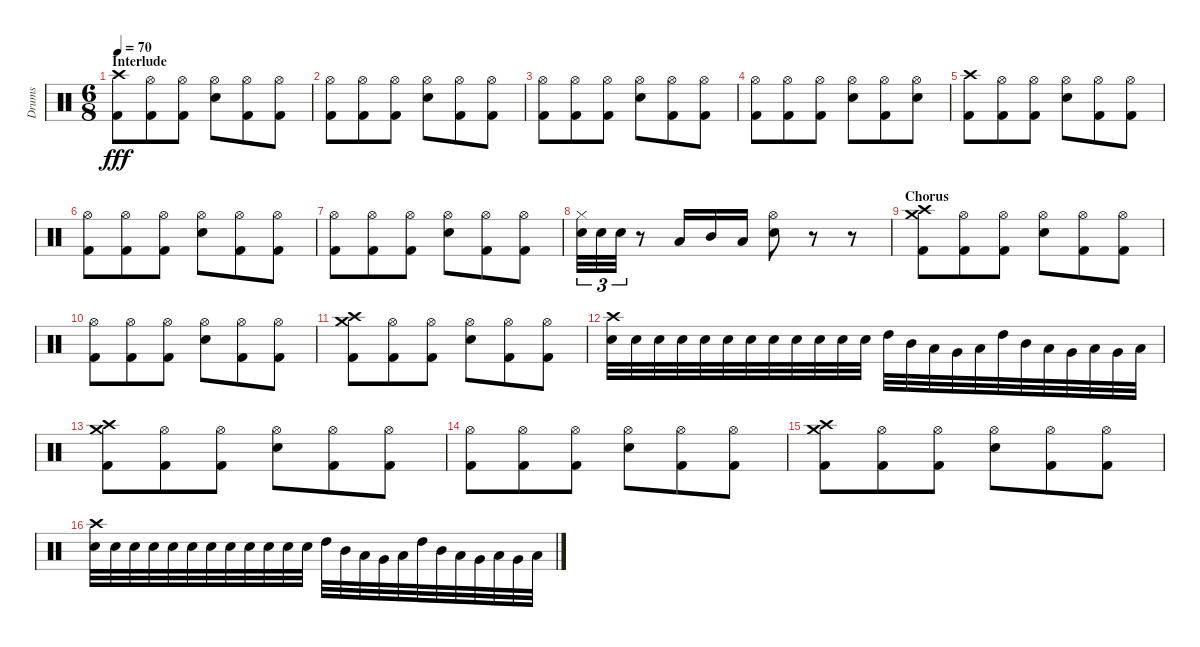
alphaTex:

\track ("Drums" "Drums") {instrument percussion}
\staff {score}
\articulation defaults
\ts (6 8)
\section ("" "Interlude")
\tempo 70
\clef neutral
\ks c
("Crash high (hit)" "Kick (hit) 2").8{dy fff} ("Hi-Hat (open)" "Kick (hit) 2").8 ("Hi-Hat (open)" "Kick (hit) 2").8 ("Hi-Hat (open)" "Electric Snare (hit)").8 ("Hi-Hat (open)" "Kick (hit) 2").8 ("Hi-Hat (open)" "Kick (hit) 2").8 |
("Hi-Hat (open)" "Kick (hit) 2").8 ("Hi-Hat (open)" "Kick (hit) 2").8 ("Hi-Hat (open)" "Kick (hit) 2").8 ("Hi-Hat (open)" "Electric Snare (hit)").8 ("Hi-Hat (open)" "Kick (hit) 2").8 ("Hi-Hat (open)" "Kick (hit) 2").8 |
("Hi-Hat (open)" "Kick (hit) 2").8 ("Hi-Hat (open)" "Kick (hit) 2").8 ("Hi-Hat (open)" "Kick (hit) 2").8 ("Hi-Hat (open)" "Electric Snare (hit)").8 ("Hi-Hat (open)" "Kick (hit) 2").8 ("Hi-Hat (open)" "Kick (hit) 2").8 |
("Hi-Hat (open)" "Kick (hit) 2").8 ("Hi-Hat (open)" "Kick (hit) 2").8 ("Hi-Hat (open)" "Kick (hit) 2").8 ("Hi-Hat (open)" "Electric Snare (hit)").8 ("Hi-Hat (open)" "Kick (hit) 2").8 ("Hi-Hat (open)" "Electric Snare (hit)").8 |
("Crash high (hit)" "Kick (hit) 2").8 ("Hi-Hat (open)" "Kick (hit) 2").8 ("Hi-Hat (open)" "Kick (hit) 2").8 ("Hi-Hat (open)" "Electric Snare (hit)").8 ("Hi-Hat (open)" "Kick (hit) 2").8 ("Hi-Hat (open)" "Kick (hit) 2").8 |
("Hi-Hat (open)" "Kick (hit) 2").8 ("Hi-Hat (open)" "Kick (hit) 2").8 ("Hi-Hat (open)" "Kick (hit) 2").8 ("Hi-Hat (open)" "Electric Snare (hit)").8 ("Hi-Hat (open)" "Kick (hit) 2").8 ("Hi-Hat (open)" "Kick (hit) 2").8 |
("Hi-Hat (open)" "Kick (hit) 2").8 ("Hi-Hat (open)" "Kick (hit) 2").8 ("Hi-Hat (open)" "Kick (hit) 2").8 ("Hi-Hat (open)" "Electric Snare (hit)").8 ("Hi-Hat (open)" "Kick (hit) 2").8 ("Hi-Hat (open)" "Kick (hit) 2").8 |
("Hi-Hat (closed)" "Electric Snare (hit)").32{tu (3 2)} "Electric Snare (hit)".32{tu (3 2)} "Electric Snare (hit)".32{tu (3 2)} r.8 "Low Tom (hit)".16 "Mid Tom (hit)".16 "Low Tom (hit)".16 ("Hi-Hat (open)" "Electric Snare (hit)").8 r.8 r.8 |
\section ("" "Chorus")
("Crash high (hit)" "Crash medium (hit)" "Kick (hit) 2").8 ("Hi-Hat (open)" "Kick (hit) 2").8 ("Hi-Hat (open)" "Kick (hit) 2").8 ("Hi-Hat (open)" "Electric Snare (hit)").8 ("Hi-Hat (open)" "Kick (hit) 2").8 ("Hi-Hat (open)" "Kick (hit) 2").8 |
("Hi-Hat (open)" "Kick (hit) 2").8 ("Hi-Hat (open)" "Kick (hit) 2").8 ("Hi-Hat (open)" "Kick (hit) 2").8 ("Hi-Hat (open)" "Electric Snare (hit)").8 ("Hi-Hat (open)" "Kick (hit) 2").8 ("Hi-Hat (open)" "Kick (hit) 2").8 |
("Crash high (hit)" "Crash medium (hit)" "Kick (hit) 2").8 ("Hi-Hat (open)" "Kick (hit) 2").8 ("Hi-Hat (open)" "Kick (hit) 2").8 ("Hi-Hat (open)" "Electric Snare (hit)").8 ("Hi-Hat (open)" "Kick (hit) 2").8 ("Hi-Hat (open)" "Kick (hit) 2").8 |
("Crash high (hit)" "Electric Snare (hit)").32 "Electric Snare (hit)".32 "Electric Snare (hit)".32 "Electric Snare (hit)".32 "Electric Snare (hit)".32 "Electric Snare (hit)".32 "Electric Snare (hit)".32 "Electric Snare (hit)".32 "Electric Snare (hit)".32 "Electric Snare (hit)".32 "Electric Snare (hit)".32 "Electric Snare (hit)".32 "High Tom (hit)".32 "Mid Tom (hit)".32 "Low Tom (hit)".32 "Very Low Tom (hit)".32 "Low Floor Tom (hit)".32 "High Tom (hit)".32 "Mid Tom (hit)".32 "Low Tom (hit)".32 "Very Low Tom (hit)".32 "Low Floor Tom (hit)".32 "Very Low Tom (hit)".32 "Low Tom (hit)".32 |
("Crash high (hit)" "Crash medium (hit)" "Kick (hit) 2").8 ("Hi-Hat (open)" "Kick (hit) 2").8 ("Hi-Hat (open)" "Kick (hit) 2").8 ("Hi-Hat (open)" "Electric Snare (hit)").8 ("Hi-Hat (open)" "Kick (hit) 2").8 ("Hi-Hat (open)" "Kick (hit) 2").8 |
("Hi-Hat (open)" "Kick (hit) 2").8 ("Hi-Hat (open)" "Kick (hit) 2").8 ("Hi-Hat (open)" "Kick (hit) 2").8 ("Hi-Hat (open)" "Electric Snare (hit)").8 ("Hi-Hat (open)" "Kick (hit) 2").8 ("Hi-Hat (open)" "Kick (hit) 2").8 |
("Crash high (hit)" "Crash medium (hit)" "Kick (hit) 2").8 ("Hi-Hat (open)" "Kick (hit) 2").8 ("Hi-Hat (open)" "Kick (hit) 2").8 ("Hi-Hat (open)" "Electric Snare (hit)").8 ("Hi-Hat (open)" "Kick (hit) 2").8 ("Hi-Hat (open)" "Kick (hit) 2").8 |
("Crash high (hit)" "Electric Snare (hit)").32 "Electric Snare (hit)".32 "Electric Snare (hit)".32 "Electric Snare (hit)".32 "Electric Snare (hit)".32 "Electric Snare (hit)".32 "Electric Snare (hit)".32 "Electric Snare (hit)".32 "Electric Snare (hit)".32 "Electric Snare (hit)".32 "Electric Snare (hit)".32 "Electric Snare (hit)".32 "High Tom (hit)".32 "Mid Tom (hit)".32 "Low Tom (hit)".32 "Very Low Tom (hit)".32 "Low Floor Tom (hit)".32 "High Tom (hit)".32 "Mid Tom (hit)".32 "Low Tom (hit)".32 "Very Low Tom (hit)".32 "Low Floor Tom (hit)".32 "Very Low Tom (hit)".32 "Low Tom (hit)".32
